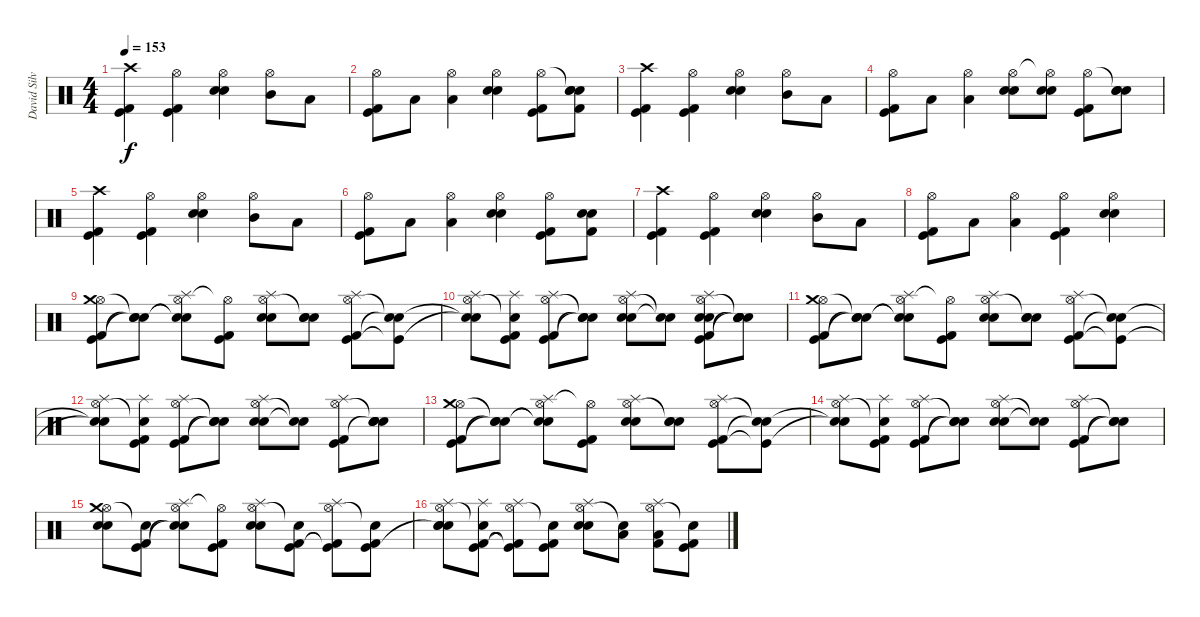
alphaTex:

\track ("David Silveria" "David Silv") {instrument percussion}
\staff {score}
\articulation defaults
\ts (4 4)
\tempo 153
\clef neutral
\ks c
("Crash high (hit)" "Kick (hit)" "Kick (hit) 2").4{dy f} ("Hi-Hat (open)" "Kick (hit)" "Kick (hit) 2").4 ("Hi-Hat (open)" "Electric Snare (hit)" "Snare (hit) 2").4 ("Hi-Hat (open)" "Mid Tom (hit)").8 "Low Tom (hit)".8 |
("Hi-Hat (open)" "Kick (hit)" "Kick (hit) 2").8 "Low Tom (hit)".8 ("Hi-Hat (open)" "Low Floor Tom (hit)").4 ("Hi-Hat (open)" "Electric Snare (hit)" "Snare (hit) 2").4 ("Hi-Hat (open)" "Kick (hit)" "Kick (hit) 2").8 ("Snare (hit)"{t} "Electric Snare (hit)" "Kick (hit) 2" "Snare (hit) 2").8 |
("Crash high (hit)" "Kick (hit)" "Kick (hit) 2").4 ("Hi-Hat (open)" "Kick (hit)" "Kick (hit) 2").4 ("Hi-Hat (open)" "Electric Snare (hit)" "Snare (hit) 2").4 ("Hi-Hat (open)" "Mid Tom (hit)").8 "Low Tom (hit)".8 |
("Hi-Hat (open)" "Kick (hit)" "Kick (hit) 2").8 "Low Tom (hit)".8 ("Hi-Hat (open)" "Low Floor Tom (hit)").4 ("Hi-Hat (open)" "Electric Snare (hit)" "Snare (hit) 2").8 ("Hi-Hat (open)"{t} "Electric Snare (hit)" "Snare (hit) 2").8 ("Hi-Hat (open)" "Kick (hit)" "Kick (hit) 2").8 ("Snare (hit)"{t} "Electric Snare (hit)" "Snare (hit) 2").8 |
("Crash high (hit)" "Kick (hit)" "Kick (hit) 2").4 ("Hi-Hat (open)" "Kick (hit)" "Kick (hit) 2").4 ("Hi-Hat (open)" "Electric Snare (hit)" "Snare (hit) 2").4 ("Hi-Hat (open)" "Mid Tom (hit)").8 "Low Tom (hit)".8 |
("Hi-Hat (open)" "Kick (hit)" "Kick (hit) 2").8 "Low Tom (hit)".8 ("Hi-Hat (open)" "Low Floor Tom (hit)").4 ("Hi-Hat (open)" "Electric Snare (hit)" "Snare (hit) 2").4 ("Hi-Hat (open)" "Kick (hit)" "Kick (hit) 2").8 ("Electric Snare (hit)" "Kick (hit) 2" "Snare (hit) 2").8 |
("Crash high (hit)" "Kick (hit)" "Kick (hit) 2").4 ("Hi-Hat (open)" "Kick (hit)" "Kick (hit) 2").4 ("Hi-Hat (open)" "Electric Snare (hit)" "Snare (hit) 2").4 ("Hi-Hat (open)" "Mid Tom (hit)").8 "Low Tom (hit)".8 |
("Hi-Hat (open)" "Kick (hit)" "Kick (hit) 2").8 "Low Tom (hit)".8 ("Hi-Hat (open)" "Low Floor Tom (hit)").4 ("Hi-Hat (open)" "Kick (hit)" "Kick (hit) 2").4 ("Hi-Hat (open)" "Electric Snare (hit)" "Snare (hit) 2").4 |
("Hi-Hat (open)" "Kick (hit) 2" "Kick (hit)" "Crash medium (hit)").8 ("Snare (hit)"{t} "Snare (hit)"{t} "Snare (hit)"{t}).8 ("Hi-Hat (open)" "Snare (hit)"{t} "Snare (hit)"{t} "Splash (hit)").8 ("Hi-Hat (open)"{t} "Kick (hit)" "Kick (hit) 2").8 ("Hi-Hat (open)" "Electric Snare (hit)" "Splash (hit)" "Snare (hit) 2").8 ("Snare (hit)"{t} "Electric Snare (hit)" "Snare (hit) 2").8 ("Hi-Hat (open)" "Kick (hit)" "Kick (hit) 2" "Splash (hit)").8 ("Snare (hit)"{t} "Kick (hit)"{t} "Snare (hit)"{t}).8 |
("Hi-Hat (open)" "Snare (hit)"{t} "Snare (hit)"{t} "Splash (hit)").8 ("Snare (hit)"{t} "Kick (hit) 2" "Kick (hit)" "Splash (hit)").8 ("Hi-Hat (open)" "Kick (hit)" "Kick (hit) 2" "Splash (hit)").8 ("Snare (hit)"{t} "Snare (hit)"{t} "Snare (hit)"{t}).8 ("Hi-Hat (open)" "Electric Snare (hit)" "Splash (hit)" "Snare (hit) 2").8 ("Snare (hit)"{t} "Snare (hit)"{t}).8 ("Hi-Hat (open)" "Kick (hit)" "Kick (hit) 2" "Splash (hit)" "Electric Snare (hit)" "Snare (hit) 2").8 ("Snare (hit)"{t} "Snare (hit)"{t} "Snare (hit)"{t} "Electric Snare (hit)" "Snare (hit) 2").8 |
("Hi-Hat (open)" "Kick (hit) 2" "Kick (hit)" "Crash medium (hit)").8 ("Snare (hit)"{t} "Snare (hit)"{t} "Snare (hit)"{t}).8 ("Hi-Hat (open)" "Snare (hit)"{t} "Snare (hit)"{t} "Splash (hit)").8 ("Hi-Hat (open)"{t} "Kick (hit)" "Kick (hit) 2").8 ("Hi-Hat (open)" "Electric Snare (hit)" "Splash (hit)" "Snare (hit) 2").8 ("Snare (hit)"{t} "Electric Snare (hit)" "Snare (hit) 2").8 ("Hi-Hat (open)" "Kick (hit)" "Kick (hit) 2" "Splash (hit)").8 ("Snare (hit)"{t} "Kick (hit)"{t} "Snare (hit)"{t}).8 |
("Hi-Hat (open)" "Snare (hit)"{t} "Snare (hit)"{t} "Splash (hit)").8 ("Snare (hit)"{t} "Kick (hit) 2" "Kick (hit)" "Splash (hit)").8 ("Hi-Hat (open)" "Kick (hit)" "Kick (hit) 2" "Splash (hit)").8 ("Snare (hit)"{t} "Snare (hit)"{t} "Snare (hit)"{t}).8 ("Hi-Hat (open)" "Electric Snare (hit)" "Splash (hit)" "Snare (hit) 2").8 ("Snare (hit)"{t} "Snare (hit)"{t}).8 ("Hi-Hat (open)" "Kick (hit)" "Kick (hit) 2" "Splash (hit)").8 ("Snare (hit)"{t} "Electric Snare (hit)" "Snare (hit)"{t} "Snare (hit) 2").8 |
("Hi-Hat (open)" "Kick (hit) 2" "Kick (hit)" "Crash medium (hit)").8 ("Snare (hit)"{t} "Snare (hit)"{t} "Snare (hit)"{t}).8 ("Hi-Hat (open)" "Snare (hit)"{t} "Snare (hit)"{t} "Splash (hit)").8 ("Hi-Hat (open)"{t} "Kick (hit)" "Kick (hit) 2").8 ("Hi-Hat (open)" "Electric Snare (hit)" "Splash (hit)" "Snare (hit) 2").8 ("Snare (hit)"{t} "Electric Snare (hit)" "Snare (hit) 2").8 ("Hi-Hat (open)" "Kick (hit)" "Kick (hit) 2" "Splash (hit)").8 ("Snare (hit)"{t} "Kick (hit)"{t} "Snare (hit)"{t}).8 |
("Hi-Hat (open)" "Snare (hit)"{t} "Snare (hit)"{t} "Splash (hit)").8 ("Snare (hit)"{t} "Kick (hit) 2" "Kick (hit)" "Splash (hit)").8 ("Hi-Hat (open)" "Kick (hit)" "Kick (hit) 2" "Splash (hit)").8 ("Snare (hit)"{t} "Snare (hit)"{t} "Snare (hit)"{t}).8 ("Hi-Hat (open)" "Electric Snare (hit)" "Splash (hit)" "Snare (hit) 2").8 ("Snare (hit)"{t} "Snare (hit)"{t}).8 ("Hi-Hat (open)" "Kick (hit)" "Kick (hit) 2" "Splash (hit)").8 ("Snare (hit)"{t} "Snare (hit)"{t} "Snare (hit)"{t}).8 |
("Hi-Hat (open)" "Electric Snare (hit)" "Crash medium (hit)" "Snare (hit) 2").8 ("Snare (hit)"{t} "Kick (hit)" "Kick (hit) 2").8 ("Hi-Hat (open)" "Snare (hit)"{t} "Snare (hit)"{t} "Splash (hit)").8 ("Hi-Hat (open)"{t} "Kick (hit)" "Kick (hit) 2").8 ("Hi-Hat (open)" "Electric Snare (hit)" "Splash (hit)" "Snare (hit) 2").8 ("Snare (hit)"{t} "Kick (hit) 2" "Kick (hit)").8 ("Hi-Hat (open)" "Kick (hit)"{t} "Kick (hit) 2"{t} "Splash (hit)").8 ("Snare (hit)"{t} "Kick (hit) 2" "Kick (hit)").8 |
("Hi-Hat (open)" "Electric Snare (hit)" "Snare (hit)"{t} "Splash (hit)" "Snare (hit) 2").8 ("Snare (hit)"{t} "Kick (hit) 2" "Kick (hit)" "Splash (hit)").8 ("Hi-Hat (open)" "Kick (hit)"{t} "Kick (hit) 2"{t} "Splash (hit)").8 ("Snare (hit)"{t} "Kick (hit) 2" "Kick (hit)").8 ("Hi-Hat (open)" "Electric Snare (hit)" "Splash (hit)" "Snare (hit) 2").8 ("Snare (hit)"{t} "Low Tom (hit)").8 ("Hi-Hat (open)" "Low Floor Tom (hit)" "Kick (hit) 2" "Splash (hit)").8 ("Snare (hit)"{t} "Kick (hit) 2" "Kick (hit)").8
